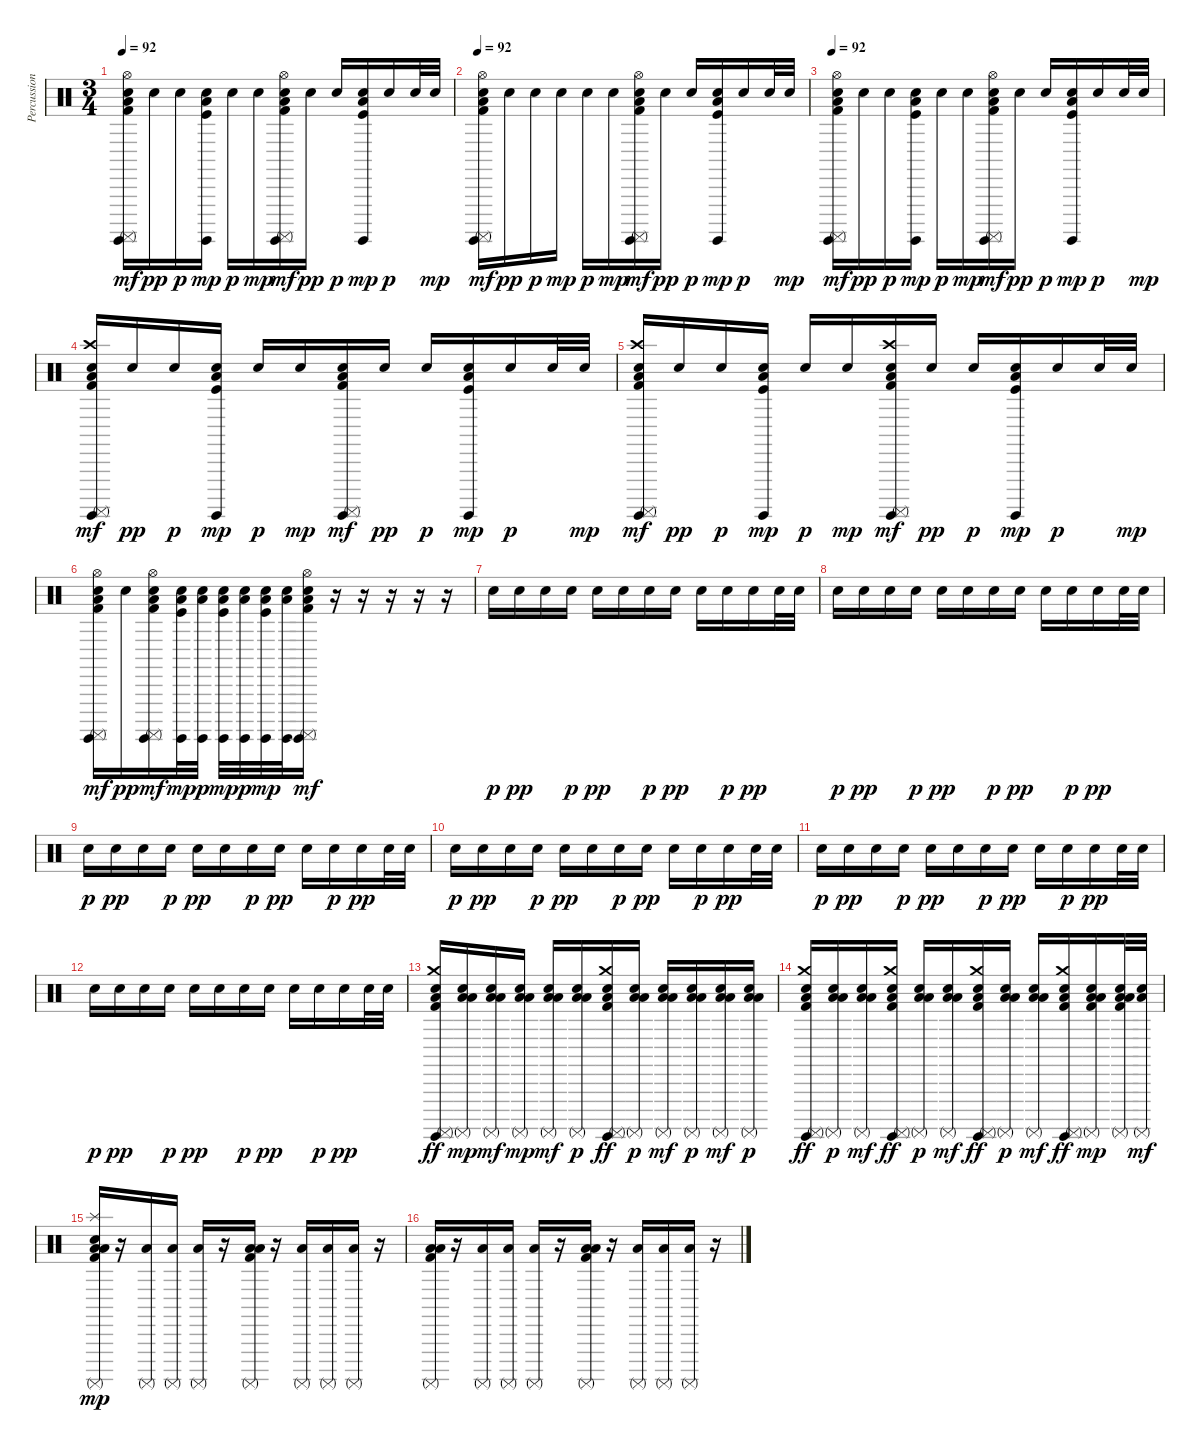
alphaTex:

\track ("Percussion" "Percussion") {instrument percussion}
\staff
\articulation defaults
\ts (3 4)
\tempo 92
\clef neutral
\ks c
("Hi-Hat (open)" "Surdo (mute)" "Snare (hit) 2" "Surdo (hit)" "Low Floor Tom (hit)" "Kick (hit) 2").16{dy mf} "Snare (hit) 2".16{dy pp} "Snare (hit) 2".16{dy p} ("Snare (hit) 2" "Surdo (hit)" "Low Floor Tom (hit)" "Kick (hit)").16{dy mp} "Snare (hit) 2".16{dy p} "Snare (hit) 2".16{dy mp} ("Hi-Hat (open)" "Surdo (mute)" "Snare (hit) 2" "Surdo (hit)" "Low Floor Tom (hit)" "Kick (hit) 2").16{dy mf} "Snare (hit) 2".16{dy pp} "Snare (hit) 2".16{dy p} ("Snare (hit) 2" "Surdo (hit)" "Low Floor Tom (hit)" "Kick (hit)").16{dy mp} "Snare (hit) 2".16{dy p} "Snare (hit) 2".32 "Snare (hit) 2".32{dy mp} |
\tempo 92
("Hi-Hat (open)" "Surdo (mute)" "Snare (hit) 2" "Surdo (hit)" "Low Floor Tom (hit)" "Kick (hit) 2").16{dy mf volume 5} "Snare (hit) 2".16{dy pp} "Snare (hit) 2".16{dy p} "Snare (hit) 2".16{dy mp} "Snare (hit) 2".16{dy p} "Snare (hit) 2".16{dy mp} ("Hi-Hat (open)" "Surdo (mute)" "Snare (hit) 2" "Surdo (hit)" "Low Floor Tom (hit)" "Kick (hit) 2").16{dy mf} "Snare (hit) 2".16{dy pp} "Snare (hit) 2".16{dy p} ("Snare (hit) 2" "Surdo (hit)" "Low Floor Tom (hit)" "Kick (hit)").16{dy mp} "Snare (hit) 2".16{dy p} "Snare (hit) 2".32 "Snare (hit) 2".32{dy mp} |
\tempo 92
("Hi-Hat (open)" "Surdo (mute)" "Snare (hit) 2" "Surdo (hit)" "Low Floor Tom (hit)" "Kick (hit) 2").16{dy mf} "Snare (hit) 2".16{dy pp} "Snare (hit) 2".16{dy p} ("Snare (hit) 2" "Surdo (hit)" "Low Floor Tom (hit)" "Kick (hit)").16{dy mp} "Snare (hit) 2".16{dy p} "Snare (hit) 2".16{dy mp} ("Hi-Hat (open)" "Surdo (mute)" "Snare (hit) 2" "Surdo (hit)" "Low Floor Tom (hit)" "Kick (hit) 2").16{dy mf} "Snare (hit) 2".16{dy pp} "Snare (hit) 2".16{dy p} ("Snare (hit) 2" "Surdo (hit)" "Low Floor Tom (hit)" "Kick (hit)").16{dy mp} "Snare (hit) 2".16{dy p} "Snare (hit) 2".32 "Snare (hit) 2".32{dy mp} |
("Crash high (hit)" "Surdo (mute)" "Snare (hit) 2" "Surdo (hit)" "Low Floor Tom (hit)" "Kick (hit) 2").16{dy mf} "Snare (hit) 2".16{dy pp} "Snare (hit) 2".16{dy p} ("Snare (hit) 2" "Surdo (hit)" "Low Floor Tom (hit)" "Kick (hit)").16{dy mp} "Snare (hit) 2".16{dy p} "Snare (hit) 2".16{dy mp} ("Surdo (mute)" "Snare (hit) 2" "Surdo (hit)" "Low Floor Tom (hit)" "Kick (hit) 2").16{dy mf} "Snare (hit) 2".16{dy pp} "Snare (hit) 2".16{dy p} ("Snare (hit) 2" "Surdo (hit)" "Low Floor Tom (hit)" "Kick (hit)").16{dy mp} "Snare (hit) 2".16{dy p} "Snare (hit) 2".32 "Snare (hit) 2".32{dy mp} |
("Crash high (hit)" "Surdo (mute)" "Snare (hit) 2" "Surdo (hit)" "Low Floor Tom (hit)" "Kick (hit) 2").16{dy mf} "Snare (hit) 2".16{dy pp} "Snare (hit) 2".16{dy p} ("Snare (hit) 2" "Surdo (hit)" "Low Floor Tom (hit)" "Kick (hit)").16{dy mp} "Snare (hit) 2".16{dy p} "Snare (hit) 2".16{dy mp} ("Crash high (hit)" "Surdo (mute)" "Snare (hit) 2" "Surdo (hit)" "Low Floor Tom (hit)" "Kick (hit) 2").16{dy mf} "Snare (hit) 2".16{dy pp} "Snare (hit) 2".16{dy p} ("Snare (hit) 2" "Surdo (hit)" "Low Floor Tom (hit)" "Kick (hit)").16{dy mp} "Snare (hit) 2".16{dy p} "Snare (hit) 2".32 "Snare (hit) 2".32{dy mp} |
("Hi-Hat (open)" "Surdo (mute)" "Snare (hit) 2" "Surdo (hit)" "Low Floor Tom (hit)" "Kick (hit) 2").16{dy mf} "Snare (hit) 2".16{dy pp} ("Hi-Hat (open)" "Surdo (mute)" "Snare (hit) 2" "Surdo (hit)" "Low Floor Tom (hit)" "Kick (hit) 2").16{dy mf} ("Snare (hit) 2" "Surdo (hit)" "Low Floor Tom (hit)" "Kick (hit)").32{dy mp} ("Snare (hit) 2" "Surdo (hit)" "Low Floor Tom (hit)").32{dy p} ("Snare (hit) 2" "Surdo (hit)" "Low Floor Tom (hit)" "Kick (hit)").32{dy mp} ("Snare (hit) 2" "Surdo (hit)" "Low Floor Tom (hit)").32{dy p} ("Snare (hit) 2" "Surdo (hit)" "Low Floor Tom (hit)" "Kick (hit)").32{dy mp} ("Snare (hit) 2" "Surdo (hit)" "Low Floor Tom (hit)").32 ("Hi-Hat (open)" "Surdo (mute)" "Snare (hit) 2" "Surdo (hit)" "Low Floor Tom (hit)" "Kick (hit) 2").16{dy mf} r.16 r.16 r.16 r.16 r.16 |
"Snare (hit) 2".16{dy p volume 3} "Snare (hit) 2".16{dy pp} "Snare (hit) 2".16 "Snare (hit) 2".16{dy p} "Snare (hit) 2".16{dy pp} "Snare (hit) 2".16 "Snare (hit) 2".16{dy p} "Snare (hit) 2".16{dy pp} "Snare (hit) 2".16 "Snare (hit) 2".16{dy p} "Snare (hit) 2".16{dy pp} "Snare (hit) 2".32 "Snare (hit) 2".32 |
"Snare (hit) 2".16{dy p volume 4} "Snare (hit) 2".16{dy pp} "Snare (hit) 2".16 "Snare (hit) 2".16{dy p} "Snare (hit) 2".16{dy pp} "Snare (hit) 2".16 "Snare (hit) 2".16{dy p} "Snare (hit) 2".16{dy pp} "Snare (hit) 2".16 "Snare (hit) 2".16{dy p} "Snare (hit) 2".16{dy pp} "Snare (hit) 2".32 "Snare (hit) 2".32 |
"Snare (hit) 2".16{dy p} "Snare (hit) 2".16{dy pp} "Snare (hit) 2".16 "Snare (hit) 2".16{dy p} "Snare (hit) 2".16{dy pp} "Snare (hit) 2".16 "Snare (hit) 2".16{dy p} "Snare (hit) 2".16{dy pp} "Snare (hit) 2".16 "Snare (hit) 2".16{dy p} "Snare (hit) 2".16{dy pp} "Snare (hit) 2".32 "Snare (hit) 2".32 |
"Snare (hit) 2".16{dy p} "Snare (hit) 2".16{dy pp} "Snare (hit) 2".16 "Snare (hit) 2".16{dy p} "Snare (hit) 2".16{dy pp} "Snare (hit) 2".16 "Snare (hit) 2".16{dy p} "Snare (hit) 2".16{dy pp} "Snare (hit) 2".16 "Snare (hit) 2".16{dy p} "Snare (hit) 2".16{dy pp} "Snare (hit) 2".32 "Snare (hit) 2".32 |
"Snare (hit) 2".16{dy p} "Snare (hit) 2".16{dy pp} "Snare (hit) 2".16 "Snare (hit) 2".16{dy p} "Snare (hit) 2".16{dy pp} "Snare (hit) 2".16 "Snare (hit) 2".16{dy p} "Snare (hit) 2".16{dy pp} "Snare (hit) 2".16 "Snare (hit) 2".16{dy p} "Snare (hit) 2".16{dy pp} "Snare (hit) 2".32 "Snare (hit) 2".32 |
"Snare (hit) 2".16{dy p} "Snare (hit) 2".16{dy pp} "Snare (hit) 2".16 "Snare (hit) 2".16{dy p} "Snare (hit) 2".16{dy pp} "Snare (hit) 2".16 "Snare (hit) 2".16{dy p} "Snare (hit) 2".16{dy pp} "Snare (hit) 2".16 "Snare (hit) 2".16{dy p} "Snare (hit) 2".16{dy pp} "Snare (hit) 2".32 "Snare (hit) 2".32 |
("Snare (hit) 2" "Surdo (hit)" "Surdo (mute)" "Crash medium (hit)" "Low Floor Tom (hit)" "Kick (hit) 2").16{dy ff} ("Snare (hit) 2" "Surdo (mute)" "Low Floor Tom (hit)" "Low Floor Tom (hit)").16{dy mp} ("Snare (hit) 2" "Surdo (mute)" "Low Floor Tom (hit)" "Low Floor Tom (hit)").16{dy mf} ("Snare (hit) 2" "Surdo (mute)" "Low Floor Tom (hit)" "Low Floor Tom (hit)").16{dy mp} ("Snare (hit) 2" "Surdo (mute)" "Low Floor Tom (hit)" "Low Floor Tom (hit)").16{dy mf} ("Snare (hit) 2" "Surdo (mute)" "Low Floor Tom (hit)" "Low Floor Tom (hit)").16{dy p} ("Snare (hit) 2" "Surdo (hit)" "Surdo (mute)" "Crash medium (hit)" "Low Floor Tom (hit)" "Kick (hit) 2").16{dy ff volume 6} ("Snare (hit) 2" "Surdo (mute)" "Low Floor Tom (hit)" "Low Floor Tom (hit)").16{dy p} ("Snare (hit) 2" "Surdo (mute)" "Low Floor Tom (hit)" "Low Floor Tom (hit)").16{dy mf} ("Snare (hit) 2" "Surdo (mute)" "Low Floor Tom (hit)" "Low Floor Tom (hit)").16{dy p} ("Snare (hit) 2" "Surdo (mute)" "Low Floor Tom (hit)" "Low Floor Tom (hit)").16{dy mf} ("Snare (hit) 2" "Surdo (mute)" "Low Floor Tom (hit)" "Low Floor Tom (hit)").16{dy p} |
("Snare (hit) 2" "Surdo (hit)" "Surdo (mute)" "Crash medium (hit)" "Low Floor Tom (hit)" "Kick (hit) 2").16{dy ff} ("Snare (hit) 2" "Surdo (mute)" "Low Floor Tom (hit)" "Low Floor Tom (hit)").16{dy p} ("Snare (hit) 2" "Surdo (mute)" "Low Floor Tom (hit)" "Low Floor Tom (hit)").16{dy mf} ("Snare (hit) 2" "Surdo (hit)" "Surdo (mute)" "Crash medium (hit)" "Low Floor Tom (hit)" "Kick (hit) 2").16{dy ff} ("Snare (hit) 2" "Surdo (mute)" "Low Floor Tom (hit)" "Low Floor Tom (hit)").16{dy p} ("Snare (hit) 2" "Surdo (mute)" "Low Floor Tom (hit)" "Low Floor Tom (hit)").16{dy mf} ("Snare (hit) 2" "Surdo (hit)" "Surdo (mute)" "Crash medium (hit)" "Low Floor Tom (hit)" "Kick (hit) 2").16{dy ff} ("Snare (hit) 2" "Surdo (mute)" "Low Floor Tom (hit)" "Low Floor Tom (hit)").16{dy p} ("Snare (hit) 2" "Surdo (mute)" "Low Floor Tom (hit)" "Low Floor Tom (hit)").16{dy mf} ("Snare (hit) 2" "Surdo (hit)" "Surdo (mute)" "Crash medium (hit)" "Low Floor Tom (hit)" "Kick (hit) 2").16{dy ff} ("Snare (hit) 2" "Surdo (mute)" "Low Floor Tom (hit)" "Low Floor Tom (hit)" "Kick (hit) 2").16{dy mp} ("Snare (hit) 2" "Surdo (mute)" "Low Floor Tom (hit)" "Low Floor Tom (hit)" "Kick (hit) 2").32 ("Snare (hit) 2" "Surdo (mute)" "Low Floor Tom (hit)").32{dy mf} |
("Snare (hit) 2" "Splash (hit)" "Surdo (mute)" "Low Floor Tom (hit)" "Low Floor Tom (hit)" "Kick (hit) 2").16{dy mp} r.16 ("Surdo (mute)" "Low Floor Tom (hit)").16 ("Surdo (mute)" "Low Floor Tom (hit)").16 ("Surdo (mute)" "Low Floor Tom (hit)").16 r.16 ("Surdo (mute)" "Low Floor Tom (hit)" "Low Floor Tom (hit)" "Kick (hit) 2").16 r.16 ("Surdo (mute)" "Low Floor Tom (hit)").16 ("Surdo (mute)" "Low Floor Tom (hit)").16 ("Surdo (mute)" "Low Floor Tom (hit)").16 r.16 |
("Surdo (mute)" "Low Floor Tom (hit)" "Low Floor Tom (hit)" "Kick (hit) 2").16 r.16 ("Surdo (mute)" "Low Floor Tom (hit)").16 ("Surdo (mute)" "Low Floor Tom (hit)").16 ("Surdo (mute)" "Low Floor Tom (hit)").16 r.16 ("Surdo (mute)" "Low Floor Tom (hit)" "Low Floor Tom (hit)" "Kick (hit) 2").16 r.16 ("Surdo (mute)" "Low Floor Tom (hit)").16 ("Surdo (mute)" "Low Floor Tom (hit)").16 ("Surdo (mute)" "Low Floor Tom (hit)").16 r.16
